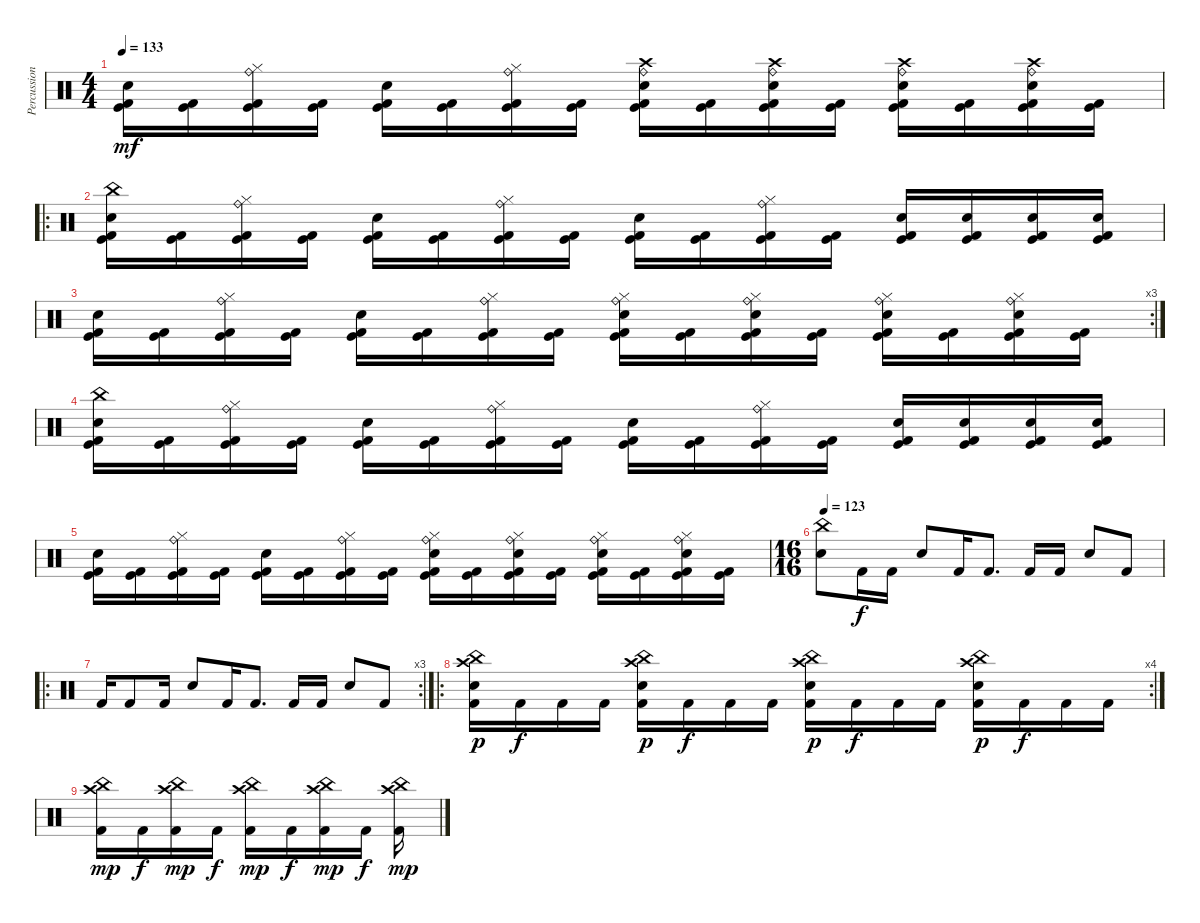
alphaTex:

\track ("Percussion" "Percussion") {instrument percussion}
\staff {score}
\articulation defaults
\ts (4 4)
\tempo 133
\clef neutral
\ks c
("Kick (hit)" "Snare (hit) 2" "Kick (hit) 2").16{dy mf} ("Kick (hit)" "Kick (hit) 2").16 ("Kick (hit)" "Ride (bell)" "Hi-Hat (closed)" "Kick (hit) 2").16 ("Kick (hit)" "Kick (hit) 2").16 ("Kick (hit)" "Snare (hit) 2" "Kick (hit) 2").16 ("Kick (hit)" "Kick (hit) 2").16 ("Kick (hit)" "Ride (bell)" "Hi-Hat (closed)" "Kick (hit) 2").16 ("Kick (hit)" "Kick (hit) 2").16 ("Kick (hit)" "Crash high (hit)" "Ride (bell)" "Snare (hit) 2" "Kick (hit) 2").16 ("Kick (hit)" "Kick (hit) 2").16 ("Kick (hit)" "Crash high (hit)" "Ride (bell)" "Snare (hit) 2" "Kick (hit) 2").16 ("Kick (hit)" "Kick (hit) 2").16 ("Kick (hit)" "Crash high (hit)" "Ride (bell)" "Snare (hit) 2" "Kick (hit) 2").16 ("Kick (hit)" "Kick (hit) 2").16 ("Kick (hit)" "Crash high (hit)" "Ride (bell)" "Snare (hit) 2" "Kick (hit) 2").16 ("Kick (hit)" "Kick (hit) 2").16 |
\ro
("Kick (hit)" "China (hit)" "Snare (hit) 2" "Kick (hit) 2").16 ("Kick (hit)" "Kick (hit) 2").16 ("Kick (hit)" "Ride (bell)" "Hi-Hat (closed)" "Kick (hit) 2").16 ("Kick (hit)" "Kick (hit) 2").16 ("Kick (hit)" "Snare (hit) 2" "Kick (hit) 2").16 ("Kick (hit)" "Kick (hit) 2").16 ("Kick (hit)" "Ride (bell)" "Hi-Hat (closed)" "Kick (hit) 2").16 ("Kick (hit)" "Kick (hit) 2").16 ("Kick (hit)" "Snare (hit) 2" "Kick (hit) 2").16 ("Kick (hit)" "Kick (hit) 2").16 ("Kick (hit)" "Ride (bell)" "Hi-Hat (closed)" "Kick (hit) 2").16 ("Kick (hit)" "Kick (hit) 2").16 ("Kick (hit)" "Snare (hit) 2" "Kick (hit) 2").16 ("Kick (hit)" "Snare (hit) 2" "Kick (hit) 2").16 ("Kick (hit)" "Snare (hit) 2" "Kick (hit) 2").16 ("Kick (hit)" "Snare (hit) 2" "Kick (hit) 2").16 |
\rc 3
("Kick (hit)" "Snare (hit) 2" "Kick (hit) 2").16 ("Kick (hit)" "Kick (hit) 2").16 ("Kick (hit)" "Ride (bell)" "Hi-Hat (closed)" "Kick (hit) 2").16 ("Kick (hit)" "Kick (hit) 2").16 ("Kick (hit)" "Snare (hit) 2" "Kick (hit) 2").16 ("Kick (hit)" "Kick (hit) 2").16 ("Kick (hit)" "Ride (bell)" "Hi-Hat (closed)" "Kick (hit) 2").16 ("Kick (hit)" "Kick (hit) 2").16 ("Kick (hit)" "Hi-Hat (closed)" "Ride (bell)" "Snare (hit) 2" "Kick (hit) 2").16 ("Kick (hit)" "Kick (hit) 2").16 ("Kick (hit)" "Hi-Hat (closed)" "Ride (bell)" "Snare (hit) 2" "Kick (hit) 2").16 ("Kick (hit)" "Kick (hit) 2").16 ("Kick (hit)" "Hi-Hat (closed)" "Ride (bell)" "Snare (hit) 2" "Kick (hit) 2").16 ("Kick (hit)" "Kick (hit) 2").16 ("Kick (hit)" "Hi-Hat (closed)" "Ride (bell)" "Snare (hit) 2" "Kick (hit) 2").16 ("Kick (hit)" "Kick (hit) 2").16 |
("Kick (hit)" "China (hit)" "Snare (hit) 2" "Kick (hit) 2").16 ("Kick (hit)" "Kick (hit) 2").16 ("Kick (hit)" "Ride (bell)" "Hi-Hat (closed)" "Kick (hit) 2").16 ("Kick (hit)" "Kick (hit) 2").16 ("Kick (hit)" "Snare (hit) 2" "Kick (hit) 2").16 ("Kick (hit)" "Kick (hit) 2").16 ("Kick (hit)" "Ride (bell)" "Hi-Hat (closed)" "Kick (hit) 2").16 ("Kick (hit)" "Kick (hit) 2").16 ("Kick (hit)" "Snare (hit) 2" "Kick (hit) 2").16 ("Kick (hit)" "Kick (hit) 2").16 ("Kick (hit)" "Ride (bell)" "Hi-Hat (closed)" "Kick (hit) 2").16 ("Kick (hit)" "Kick (hit) 2").16 ("Kick (hit)" "Snare (hit) 2" "Kick (hit) 2").16 ("Kick (hit)" "Snare (hit) 2" "Kick (hit) 2").16 ("Kick (hit)" "Snare (hit) 2" "Kick (hit) 2").16 ("Kick (hit)" "Snare (hit) 2" "Kick (hit) 2").16 |
("Kick (hit)" "Snare (hit) 2" "Kick (hit) 2").16 ("Kick (hit)" "Kick (hit) 2").16 ("Kick (hit)" "Ride (bell)" "Hi-Hat (closed)" "Kick (hit) 2").16 ("Kick (hit)" "Kick (hit) 2").16 ("Kick (hit)" "Snare (hit) 2" "Kick (hit) 2").16 ("Kick (hit)" "Kick (hit) 2").16 ("Kick (hit)" "Ride (bell)" "Hi-Hat (closed)" "Kick (hit) 2").16 ("Kick (hit)" "Kick (hit) 2").16 ("Kick (hit)" "Hi-Hat (closed)" "Ride (bell)" "Snare (hit) 2" "Kick (hit) 2").16 ("Kick (hit)" "Kick (hit) 2").16 ("Kick (hit)" "Hi-Hat (closed)" "Ride (bell)" "Snare (hit) 2" "Kick (hit) 2").16 ("Kick (hit)" "Kick (hit) 2").16 ("Kick (hit)" "Hi-Hat (closed)" "Ride (bell)" "Snare (hit) 2" "Kick (hit) 2").16 ("Kick (hit)" "Kick (hit) 2").16 ("Kick (hit)" "Hi-Hat (closed)" "Ride (bell)" "Snare (hit) 2" "Kick (hit) 2").16 ("Kick (hit)" "Kick (hit) 2").16 |
\ts (16 16)
\tempo 123
("China (hit)" "Snare (hit) 2").8 "Kick (hit) 2".16{dy f} "Kick (hit) 2".16 "Snare (hit) 2".8 "Kick (hit) 2".16 "Kick (hit) 2".8{d} "Kick (hit) 2".16 "Kick (hit) 2".16 "Snare (hit) 2".8 "Kick (hit) 2".8 |
\ro
\rc 3 "Kick (hit) 2".16 "Kick (hit) 2".8 "Kick (hit) 2".16 "Snare (hit) 2".8 "Kick (hit) 2".16 "Kick (hit) 2".8{d} "Kick (hit) 2".16 "Kick (hit) 2".16 "Snare (hit) 2".8 "Kick (hit) 2".8
|
\ro
\rc 4
("Crash high (hit)" "China (hit)" "Snare (hit) 2" "Kick (hit) 2").16{dy p} "Kick (hit) 2".16{dy f} "Kick (hit) 2".16 "Kick (hit) 2".16 ("Crash high (hit)" "China (hit)" "Snare (hit) 2" "Kick (hit) 2").16{dy p} "Kick (hit) 2".16{dy f} "Kick (hit) 2".16 "Kick (hit) 2".16 ("Crash high (hit)" "China (hit)" "Snare (hit) 2" "Kick (hit) 2").16{dy p} "Kick (hit) 2".16{dy f} "Kick (hit) 2".16 "Kick (hit) 2".16 ("Crash high (hit)" "China (hit)" "Snare (hit) 2" "Kick (hit) 2").16{dy p} "Kick (hit) 2".16{dy f} "Kick (hit) 2".16 "Kick (hit) 2".16 |
("Crash high (hit)" "China (hit)" "Kick (hit) 2").16{dy mp} "Kick (hit) 2".16{dy f} ("Crash high (hit)" "China (hit)" "Kick (hit) 2").16{dy mp} "Kick (hit) 2".16{dy f} ("Crash high (hit)" "China (hit)" "Kick (hit) 2").16{dy mp} "Kick (hit) 2".16{dy f} ("Crash high (hit)" "China (hit)" "Kick (hit) 2").16{dy mp} "Kick (hit) 2".16{dy f} ("Crash high (hit)" "China (hit)" "Kick (hit) 2").16{dy mp}
